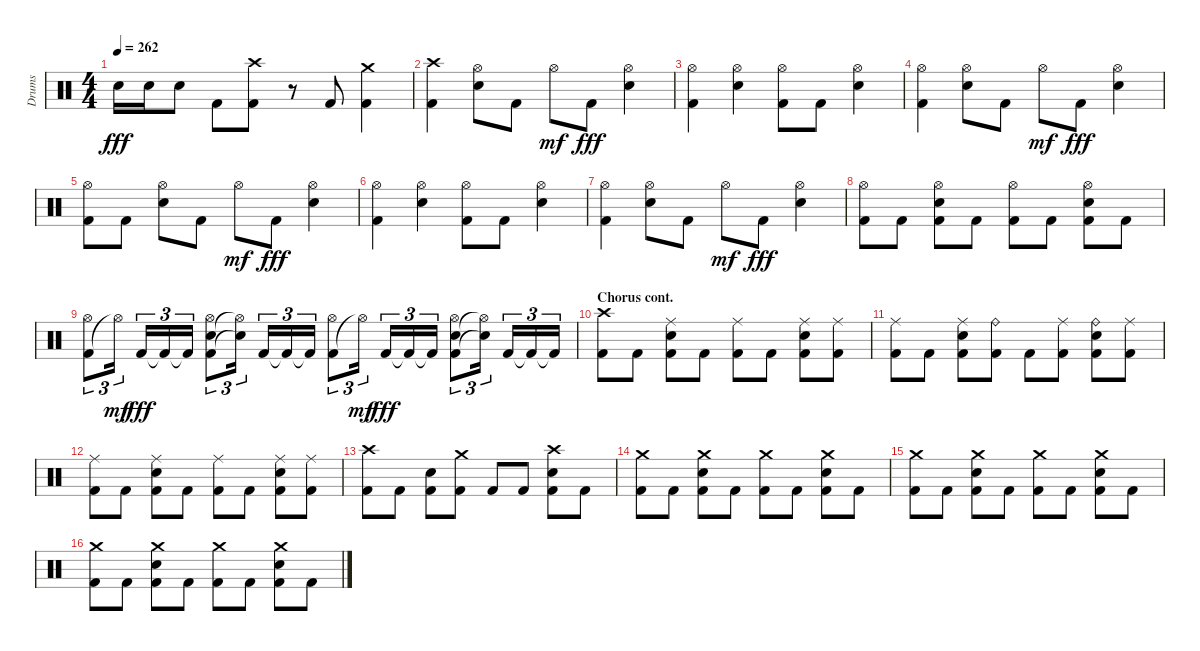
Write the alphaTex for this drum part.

\track ("Drums" "Drums") {instrument percussion}
\staff {score}
\articulation defaults
\ts (4 4)
\tempo 262
\clef neutral
\ks aminor "Snare (hit) 2".16{dy fff} "Snare (hit) 2".16 "Snare (hit) 2".8 "Kick (hit) 2".8
("Kick (hit) 2" "Crash high (hit)").8 r.8 "Kick (hit) 2".8 ("Kick (hit) 2" "Crash medium (hit)").4 |
("Kick (hit) 2" "Crash high (hit)").4 ("Snare (hit) 2" "Hi-Hat (open)").8 "Kick (hit) 2".8 "Hi-Hat (open)".8{dy mf} "Kick (hit) 2".8{dy fff} ("Snare (hit) 2" "Hi-Hat (open)").4 |
("Kick (hit) 2" "Hi-Hat (open)").4 ("Snare (hit) 2" "Hi-Hat (open)").4 ("Kick (hit) 2" "Hi-Hat (open)").8 "Kick (hit) 2".8 ("Snare (hit) 2" "Hi-Hat (open)").4 |
("Kick (hit) 2" "Hi-Hat (open)").4 ("Snare (hit) 2" "Hi-Hat (open)").8 "Kick (hit) 2".8 "Hi-Hat (open)".8{dy mf} "Kick (hit) 2".8{dy fff} ("Snare (hit) 2" "Hi-Hat (open)").4 |
("Kick (hit) 2" "Hi-Hat (open)").8 "Kick (hit) 2".8 ("Snare (hit) 2" "Hi-Hat (open)").8 "Kick (hit) 2".8 "Hi-Hat (open)".8{dy mf} "Kick (hit) 2".8{dy fff} ("Snare (hit) 2" "Hi-Hat (open)").4 |
("Kick (hit) 2" "Hi-Hat (open)").4 ("Snare (hit) 2" "Hi-Hat (open)").4 ("Kick (hit) 2" "Hi-Hat (open)").8 "Kick (hit) 2".8 ("Snare (hit) 2" "Hi-Hat (open)").4 |
("Kick (hit) 2" "Hi-Hat (open)").4 ("Snare (hit) 2" "Hi-Hat (open)").8 "Kick (hit) 2".8 "Hi-Hat (open)".8{dy mf} "Kick (hit) 2".8{dy fff} ("Snare (hit) 2" "Hi-Hat (open)").4 |
("Kick (hit) 2" "Hi-Hat (open)").8 "Kick (hit) 2".8 ("Kick (hit) 2" "Snare (hit) 2" "Hi-Hat (open)").8 "Kick (hit) 2".8 ("Kick (hit) 2" "Hi-Hat (open)").8 "Kick (hit) 2".8 ("Kick (hit) 2" "Snare (hit) 2" "Hi-Hat (open)").8 "Kick (hit) 2".8 |
("Kick (hit) 2" "Hi-Hat (open)").8{tu (3 2)} "Hi-Hat (open)"{t}.16{tu (3 2) dy mf} "Kick (hit) 2".16{tu (3 2) dy fff} "Kick (hit) 2"{t}.16{tu (3 2)} "Kick (hit) 2"{t}.16{tu (3 2)} ("Kick (hit) 2" "Snare (hit) 2" "Hi-Hat (open)").8{tu (3 2)} ("Snare (hit) 2"{t} "Hi-Hat (open)"{t}).16{tu (3 2)} "Kick (hit) 2".16{tu (3 2)} "Kick (hit) 2"{t}.16{tu (3 2)} "Kick (hit) 2"{t}.16{tu (3 2)} ("Kick (hit) 2" "Hi-Hat (open)").8{tu (3 2)} "Hi-Hat (open)"{t}.16{tu (3 2) dy mf} "Kick (hit) 2".16{tu (3 2) dy fff} "Kick (hit) 2"{t}.16{tu (3 2)} "Kick (hit) 2"{t}.16{tu (3 2)} ("Kick (hit) 2" "Snare (hit) 2" "Hi-Hat (open)").8{tu (3 2)} ("Snare (hit) 2"{t} "Hi-Hat (open)"{t}).16{tu (3 2)} "Kick (hit) 2".16{tu (3 2)} "Kick (hit) 2"{t}.16{tu (3 2)} "Kick (hit) 2"{t}.16{tu (3 2)} |
\section ("" "Chorus cont.")
("Kick (hit) 2" "Crash high (hit)").8 "Kick (hit) 2".8 ("Kick (hit) 2" "Snare (hit) 2" "Ride (middle)").8 "Kick (hit) 2".8 ("Kick (hit) 2" "Ride (middle)").8 "Kick (hit) 2".8 ("Kick (hit) 2" "Snare (hit) 2" "Ride (middle)").8 ("Kick (hit) 2" "Ride (middle)").8 |
("Kick (hit) 2" "Ride (middle)").8 "Kick (hit) 2".8 ("Snare (hit) 2" "Kick (hit) 2" "Ride (middle)").8 ("Kick (hit) 2" "Ride (bell)").8 "Kick (hit) 2".8 ("Kick (hit) 2" "Ride (middle)").8 ("Kick (hit) 2" "Snare (hit) 2" "Ride (bell)").8 ("Kick (hit) 2" "Ride (middle)").8 |
("Kick (hit) 2" "Ride (middle)").8 "Kick (hit) 2".8 ("Kick (hit) 2" "Snare (hit) 2" "Ride (middle)").8 "Kick (hit) 2".8 ("Kick (hit) 2" "Ride (middle)").8 "Kick (hit) 2".8 ("Kick (hit) 2" "Snare (hit) 2" "Ride (middle)").8 ("Kick (hit) 2" "Ride (middle)").8 |
("Kick (hit) 2" "Crash high (hit)").8 "Kick (hit) 2".8 ("Kick (hit) 2" "Snare (hit) 2").8 ("Kick (hit) 2" "Crash medium (hit)").8 "Kick (hit) 2".8 "Kick (hit) 2".8 ("Kick (hit) 2" "Snare (hit) 2" "Crash high (hit)").8 "Kick (hit) 2".8 |
("Kick (hit) 2" "Crash medium (hit)").8 "Kick (hit) 2".8 ("Snare (hit) 2" "Kick (hit) 2" "Crash medium (hit)").8 "Kick (hit) 2".8 ("Kick (hit) 2" "Crash medium (hit)").8 "Kick (hit) 2".8 ("Kick (hit) 2" "Snare (hit) 2" "Crash medium (hit)").8 "Kick (hit) 2".8 |
("Kick (hit) 2" "Crash medium (hit)").8 "Kick (hit) 2".8 ("Kick (hit) 2" "Snare (hit) 2" "Crash medium (hit)").8 "Kick (hit) 2".8 ("Kick (hit) 2" "Crash medium (hit)").8 "Kick (hit) 2".8 ("Kick (hit) 2" "Snare (hit) 2" "Crash medium (hit)").8 "Kick (hit) 2".8 |
("Kick (hit) 2" "Crash medium (hit)").8 "Kick (hit) 2".8 ("Snare (hit) 2" "Kick (hit) 2" "Crash medium (hit)").8 "Kick (hit) 2".8 ("Kick (hit) 2" "Crash medium (hit)").8 "Kick (hit) 2".8 ("Kick (hit) 2" "Snare (hit) 2" "Crash medium (hit)").8 "Kick (hit) 2".8
